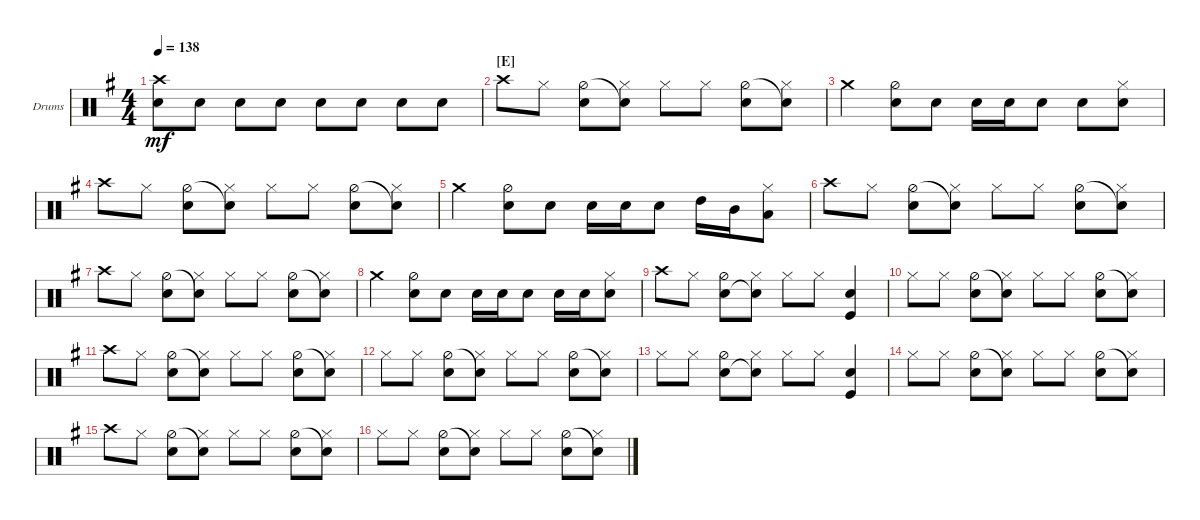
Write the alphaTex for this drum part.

\defaultSystemsLayout 4
\bracketExtendMode groupsimilarinstruments
\firstSystemTrackNameOrientation horizontal
\otherSystemsTrackNameOrientation horizontal
\track ("Drumkit" "Drums") {instrument percussion}
\staff {score}
\articulation defaults
\ts (4 4)
\tempo 138
\clef neutral
\ks g
("Crash high (hit)" "Snare (hit) 2").8{dy mf} "Snare (hit) 2".8 "Snare (hit) 2".8 "Snare (hit) 2".8 "Snare (hit) 2".8 "Snare (hit) 2".8 "Snare (hit) 2".8 "Snare (hit) 2".8 |
\section ("E" "")
"Crash high (hit)".8 "Hi-Hat (closed)".8 ("Hi-Hat (half)" "Snare (hit) 2").8 ("Snare (hit) 2"{t} "Hi-Hat (closed)").8 "Hi-Hat (closed)".8 "Hi-Hat (closed)".8 ("Hi-Hat (half)" "Snare (hit) 2").8 ("Snare (hit) 2"{t} "Hi-Hat (closed)").8 |
"Crash medium (hit)".4 ("Snare (hit) 2" "Hi-Hat (half)").8 "Snare (hit) 2".8 "Snare (hit) 2".16 "Snare (hit) 2".16 "Snare (hit) 2".8 "Snare (hit) 2".8 ("Snare (hit) 2" "Hi-Hat (closed)").8 |
"Crash high (hit)".8 "Hi-Hat (closed)".8 ("Hi-Hat (half)" "Snare (hit) 2").8 ("Snare (hit) 2"{t} "Hi-Hat (closed)").8 "Hi-Hat (closed)".8 "Hi-Hat (closed)".8 ("Hi-Hat (half)" "Snare (hit) 2").8 ("Snare (hit) 2"{t} "Hi-Hat (closed)").8 |
"Crash medium (hit)".4 ("Snare (hit) 2" "Hi-Hat (half)").8 "Snare (hit) 2".8 "Snare (hit) 2".16 "Snare (hit) 2".16 "Snare (hit) 2".8 "High Tom (hit)".16 "Mid Tom (hit)".16 ("Hi-Hat (closed)" "Low Tom (hit)").8 |
"Crash high (hit)".8 "Hi-Hat (closed)".8 ("Hi-Hat (half)" "Snare (hit) 2").8 ("Snare (hit) 2"{t} "Hi-Hat (closed)").8 "Hi-Hat (closed)".8 "Hi-Hat (closed)".8 ("Hi-Hat (half)" "Snare (hit) 2").8 ("Snare (hit) 2"{t} "Hi-Hat (closed)").8 |
"Crash high (hit)".8 "Hi-Hat (closed)".8 ("Hi-Hat (half)" "Snare (hit) 2").8 ("Snare (hit) 2"{t} "Hi-Hat (closed)").8 "Hi-Hat (closed)".8 "Hi-Hat (closed)".8 ("Hi-Hat (half)" "Snare (hit) 2").8 ("Snare (hit) 2"{t} "Hi-Hat (closed)").8 |
"Crash medium (hit)".4 ("Snare (hit) 2" "Hi-Hat (half)").8 "Snare (hit) 2".8 "Snare (hit) 2".16 "Snare (hit) 2".16 "Snare (hit) 2".8 "Snare (hit) 2".16 "Snare (hit) 2".16 ("Hi-Hat (closed)" "Snare (hit) 2").8 |
"Crash high (hit)".8 "Hi-Hat (closed)".8 ("Snare (hit) 2" "Hi-Hat (half)").8 ("Snare (hit) 2"{t} "Hi-Hat (closed)").8 "Hi-Hat (closed)".8 "Hi-Hat (closed)".8 ("Snare (hit) 2" "Kick (hit)").4 |
"Hi-Hat (closed)".8 "Hi-Hat (closed)".8 ("Hi-Hat (half)" "Snare (hit) 2").8 ("Snare (hit) 2"{t} "Hi-Hat (closed)").8 "Hi-Hat (closed)".8 "Hi-Hat (closed)".8 ("Hi-Hat (half)" "Snare (hit) 2").8 ("Snare (hit) 2"{t} "Hi-Hat (closed)").8 |
"Crash high (hit)".8 "Hi-Hat (closed)".8 ("Hi-Hat (half)" "Snare (hit) 2").8 ("Snare (hit) 2"{t} "Hi-Hat (closed)").8 "Hi-Hat (closed)".8 "Hi-Hat (closed)".8 ("Hi-Hat (half)" "Snare (hit) 2").8 ("Snare (hit) 2"{t} "Hi-Hat (closed)").8 |
"Hi-Hat (closed)".8 "Hi-Hat (closed)".8 ("Hi-Hat (half)" "Snare (hit) 2").8 ("Snare (hit) 2"{t} "Hi-Hat (closed)").8 "Hi-Hat (closed)".8 "Hi-Hat (closed)".8 ("Hi-Hat (half)" "Snare (hit) 2").8 ("Snare (hit) 2"{t} "Hi-Hat (closed)").8 |
"Hi-Hat (closed)".8 "Hi-Hat (closed)".8 ("Snare (hit) 2" "Hi-Hat (half)").8 ("Snare (hit) 2"{t} "Hi-Hat (closed)").8 "Hi-Hat (closed)".8 "Hi-Hat (closed)".8 ("Snare (hit) 2" "Kick (hit)").4 |
"Hi-Hat (closed)".8 "Hi-Hat (closed)".8 ("Hi-Hat (half)" "Snare (hit) 2").8 ("Snare (hit) 2"{t} "Hi-Hat (closed)").8 "Hi-Hat (closed)".8 "Hi-Hat (closed)".8 ("Hi-Hat (half)" "Snare (hit) 2").8 ("Snare (hit) 2"{t} "Hi-Hat (closed)").8 |
"Crash high (hit)".8 "Hi-Hat (closed)".8 ("Hi-Hat (half)" "Snare (hit) 2").8 ("Snare (hit) 2"{t} "Hi-Hat (closed)").8 "Hi-Hat (closed)".8 "Hi-Hat (closed)".8 ("Hi-Hat (half)" "Snare (hit) 2").8 ("Snare (hit) 2"{t} "Hi-Hat (closed)").8 |
"Hi-Hat (closed)".8 "Hi-Hat (closed)".8 ("Hi-Hat (half)" "Snare (hit) 2").8 ("Snare (hit) 2"{t} "Hi-Hat (closed)").8 "Hi-Hat (closed)".8 "Hi-Hat (closed)".8 ("Hi-Hat (half)" "Snare (hit) 2").8 ("Snare (hit) 2"{t} "Hi-Hat (closed)").8
